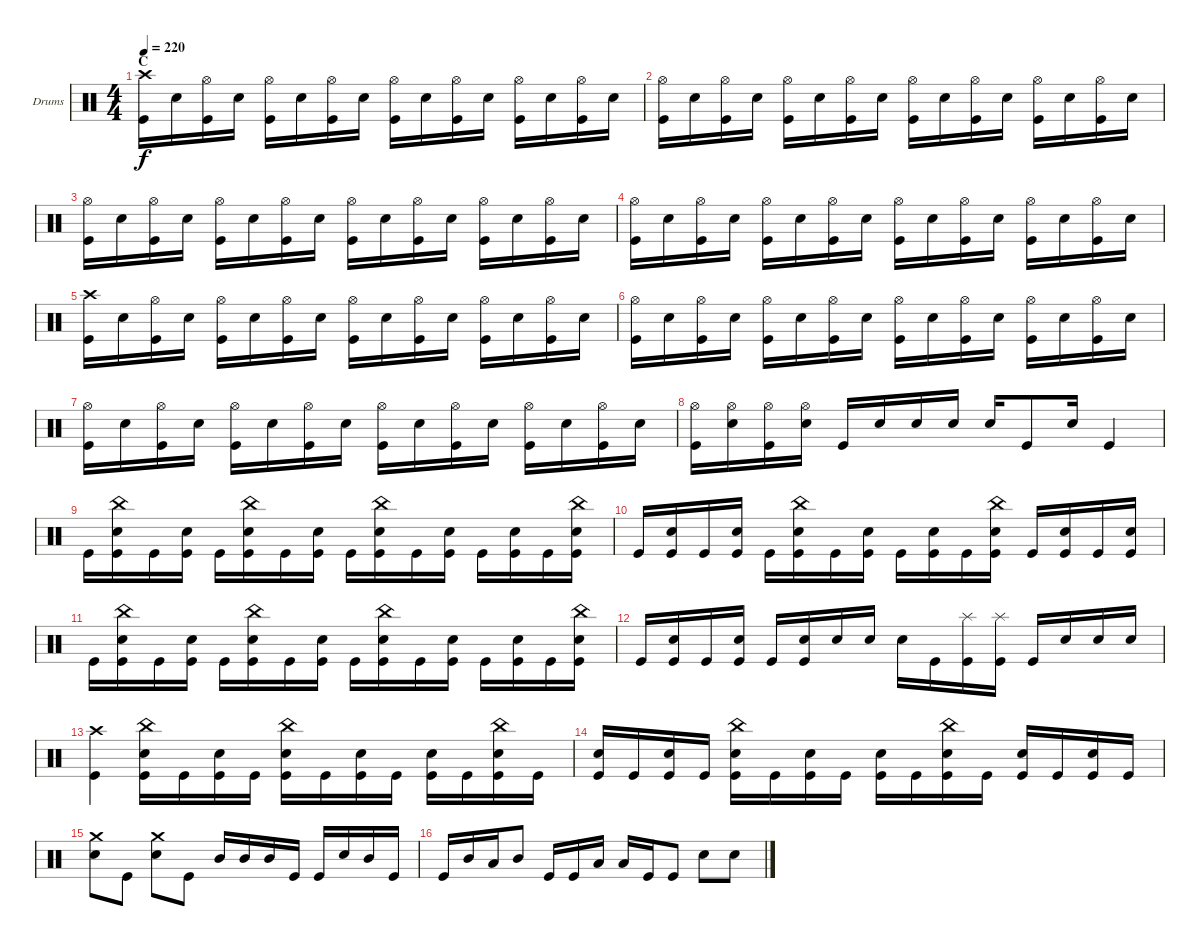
\bracketExtendMode groupsimilarinstruments
\firstSystemTrackNameOrientation horizontal
\otherSystemsTrackNameOrientation horizontal
\track ("Drumkit" "Drums") {instrument percussion}
\staff {score}
\articulation defaults
\ts (4 4)
\section ("" "C")
\tempo 220
\clef neutral
\scale
0.5
\ks c
("Kick (hit)" "Crash high (hit)").16{dy f} "Snare (hit) 2".16 ("Kick (hit)" "Hi-Hat (open)").16 "Snare (hit) 2".16 ("Kick (hit)" "Hi-Hat (open)").16 "Snare (hit) 2".16 ("Kick (hit)" "Hi-Hat (open)").16 "Snare (hit) 2".16 ("Kick (hit)" "Hi-Hat (open)").16 "Snare (hit) 2".16 ("Kick (hit)" "Hi-Hat (open)").16 "Snare (hit) 2".16 ("Kick (hit)" "Hi-Hat (open)").16 "Snare (hit) 2".16 ("Kick (hit)" "Hi-Hat (open)").16 "Snare (hit) 2".16 |
\scale
0.5 ("Kick (hit)" "Hi-Hat (open)").16 "Snare (hit) 2".16 ("Kick (hit)" "Hi-Hat (open)").16 "Snare (hit) 2".16 ("Kick (hit)" "Hi-Hat (open)").16 "Snare (hit) 2".16 ("Kick (hit)" "Hi-Hat (open)").16 "Snare (hit) 2".16 ("Kick (hit)" "Hi-Hat (open)").16 "Snare (hit) 2".16 ("Kick (hit)" "Hi-Hat (open)").16 "Snare (hit) 2".16 ("Kick (hit)" "Hi-Hat (open)").16 "Snare (hit) 2".16 ("Kick (hit)" "Hi-Hat (open)").16 "Snare (hit) 2".16 |
\scale
0.5 ("Kick (hit)" "Hi-Hat (open)").16 "Snare (hit) 2".16 ("Kick (hit)" "Hi-Hat (open)").16 "Snare (hit) 2".16 ("Kick (hit)" "Hi-Hat (open)").16 "Snare (hit) 2".16 ("Kick (hit)" "Hi-Hat (open)").16 "Snare (hit) 2".16 ("Kick (hit)" "Hi-Hat (open)").16 "Snare (hit) 2".16 ("Kick (hit)" "Hi-Hat (open)").16 "Snare (hit) 2".16 ("Kick (hit)" "Hi-Hat (open)").16 "Snare (hit) 2".16 ("Kick (hit)" "Hi-Hat (open)").16 "Snare (hit) 2".16 |
\scale
0.5 ("Kick (hit)" "Hi-Hat (open)").16 "Snare (hit) 2".16 ("Kick (hit)" "Hi-Hat (open)").16 "Snare (hit) 2".16 ("Kick (hit)" "Hi-Hat (open)").16 "Snare (hit) 2".16 ("Kick (hit)" "Hi-Hat (open)").16 "Snare (hit) 2".16 ("Kick (hit)" "Hi-Hat (open)").16 "Snare (hit) 2".16 ("Kick (hit)" "Hi-Hat (open)").16 "Snare (hit) 2".16 ("Kick (hit)" "Hi-Hat (open)").16 "Snare (hit) 2".16 ("Kick (hit)" "Hi-Hat (open)").16 "Snare (hit) 2".16 |
\scale
0.5 ("Kick (hit)" "Crash high (hit)").16 "Snare (hit) 2".16 ("Kick (hit)" "Hi-Hat (open)").16 "Snare (hit) 2".16 ("Kick (hit)" "Hi-Hat (open)").16 "Snare (hit) 2".16 ("Kick (hit)" "Hi-Hat (open)").16 "Snare (hit) 2".16 ("Kick (hit)" "Hi-Hat (open)").16 "Snare (hit) 2".16 ("Kick (hit)" "Hi-Hat (open)").16 "Snare (hit) 2".16 ("Kick (hit)" "Hi-Hat (open)").16 "Snare (hit) 2".16 ("Kick (hit)" "Hi-Hat (open)").16 "Snare (hit) 2".16 |
\scale
0.5 ("Kick (hit)" "Hi-Hat (open)").16 "Snare (hit) 2".16 ("Kick (hit)" "Hi-Hat (open)").16 "Snare (hit) 2".16 ("Kick (hit)" "Hi-Hat (open)").16 "Snare (hit) 2".16 ("Kick (hit)" "Hi-Hat (open)").16 "Snare (hit) 2".16 ("Kick (hit)" "Hi-Hat (open)").16 "Snare (hit) 2".16 ("Kick (hit)" "Hi-Hat (open)").16 "Snare (hit) 2".16 ("Kick (hit)" "Hi-Hat (open)").16 "Snare (hit) 2".16 ("Kick (hit)" "Hi-Hat (open)").16 "Snare (hit) 2".16 |
\scale
0.540305 ("Kick (hit)" "Hi-Hat (open)").16 "Snare (hit) 2".16 ("Kick (hit)" "Hi-Hat (open)").16 "Snare (hit) 2".16 ("Kick (hit)" "Hi-Hat (open)").16 "Snare (hit) 2".16 ("Kick (hit)" "Hi-Hat (open)").16 "Snare (hit) 2".16 ("Kick (hit)" "Hi-Hat (open)").16 "Snare (hit) 2".16 ("Kick (hit)" "Hi-Hat (open)").16 "Snare (hit) 2".16 ("Kick (hit)" "Hi-Hat (open)").16 "Snare (hit) 2".16 ("Kick (hit)" "Hi-Hat (open)").16 "Snare (hit) 2".16 |
\scale
0.459695 ("Hi-Hat (open)" "Kick (hit)").16 ("Hi-Hat (open)" "Snare (hit) 2").16 ("Hi-Hat (open)" "Kick (hit)").16 ("Hi-Hat (open)" "Snare (hit) 2").16 "Kick (hit)".16 "Snare (hit) 2".16 "Snare (hit) 2".16 "Snare (hit) 2".16 "Snare (hit) 2".16 "Kick (hit)".8 "Snare (hit) 2".16 "Kick (hit)".4 |
\scale
0.5 "Kick (hit)".16 ("China (hit)" "Snare (hit) 2" "Kick (hit)").16 "Kick (hit)".16 ("Snare (hit) 2" "Kick (hit)").16 "Kick (hit)".16 ("China (hit)" "Snare (hit) 2" "Kick (hit)").16 "Kick (hit)".16 ("Snare (hit) 2" "Kick (hit)").16 "Kick (hit)".16 ("China (hit)" "Snare (hit) 2" "Kick (hit)").16 "Kick (hit)".16 ("Snare (hit) 2" "Kick (hit)").16 "Kick (hit)".16 ("Snare (hit) 2" "Kick (hit)").16 "Kick (hit)".16 ("China (hit)" "Snare (hit) 2" "Kick (hit)").16 |
\scale
0.5 "Kick (hit)".16 ("Snare (hit) 2" "Kick (hit)").16 "Kick (hit)".16 ("Snare (hit) 2" "Kick (hit)").16 "Kick (hit)".16 ("China (hit)" "Snare (hit) 2" "Kick (hit)").16 "Kick (hit)".16 ("Snare (hit) 2" "Kick (hit)").16 "Kick (hit)".16 ("Snare (hit) 2" "Kick (hit)").16 "Kick (hit)".16 ("China (hit)" "Snare (hit) 2" "Kick (hit)").16 "Kick (hit)".16 ("Snare (hit) 2" "Kick (hit)").16 "Kick (hit)".16 ("Snare (hit) 2" "Kick (hit)").16 |
\scale
0.5 "Kick (hit)".16 ("China (hit)" "Snare (hit) 2" "Kick (hit)").16 "Kick (hit)".16 ("Snare (hit) 2" "Kick (hit)").16 "Kick (hit)".16 ("China (hit)" "Snare (hit) 2" "Kick (hit)").16 "Kick (hit)".16 ("Snare (hit) 2" "Kick (hit)").16 "Kick (hit)".16 ("China (hit)" "Snare (hit) 2" "Kick (hit)").16 "Kick (hit)".16 ("Snare (hit) 2" "Kick (hit)").16 "Kick (hit)".16 ("Snare (hit) 2" "Kick (hit)").16 "Kick (hit)".16 ("China (hit)" "Snare (hit) 2" "Kick (hit)").16 |
\scale
0.5 "Kick (hit)".16 ("Snare (hit) 2" "Kick (hit)").16 "Kick (hit)".16 ("Snare (hit) 2" "Kick (hit)").16 "Kick (hit)".16 ("Snare (hit) 2" "Kick (hit)").16 "Snare (hit) 2".16 "Snare (hit) 2".16 "Snare (hit) 2".16 "Kick (hit)".16 ("Splash (hit)" "Kick (hit)").16 ("Splash (hit)" "Kick (hit)").16 "Kick (hit)".16 "Snare (hit) 2".16 "Snare (hit) 2".16 "Snare (hit) 2".16 |
\scale
0.470085 ("Crash high (hit)" "Kick (hit)").4 ("China (hit)" "Snare (hit) 2" "Kick (hit)").16 "Kick (hit)".16 ("Snare (hit) 2" "Kick (hit)").16 "Kick (hit)".16 ("China (hit)" "Snare (hit) 2" "Kick (hit)").16 "Kick (hit)".16 ("Snare (hit) 2" "Kick (hit)").16 "Kick (hit)".16 ("Snare (hit) 2" "Kick (hit)").16 "Kick (hit)".16 ("China (hit)" "Snare (hit) 2" "Kick (hit)").16 "Kick (hit)".16 |
\scale
0.529915 ("Snare (hit) 2" "Kick (hit)").16 "Kick (hit)".16 ("Snare (hit) 2" "Kick (hit)").16 "Kick (hit)".16 ("China (hit)" "Snare (hit) 2" "Kick (hit)").16 "Kick (hit)".16 ("Snare (hit) 2" "Kick (hit)").16 "Kick (hit)".16 ("Snare (hit) 2" "Kick (hit)").16 "Kick (hit)".16 ("China (hit)" "Snare (hit) 2" "Kick (hit)").16 "Kick (hit)".16 ("Snare (hit) 2" "Kick (hit)").16 "Kick (hit)".16 ("Snare (hit) 2" "Kick (hit)").16 "Kick (hit)".16 |
\scale
0.5 ("Crash medium (hit)" "Snare (hit) 2").8 "Kick (hit)".8 ("Crash medium (hit)" "Snare (hit) 2").8 "Kick (hit)".8 "Mid Tom (hit)".16 "Mid Tom (hit)".16 "Mid Tom (hit)".16 "Kick (hit)".16 "Kick (hit)".16 "Snare (hit) 2".16 "Mid Tom (hit)".16 "Kick (hit)".16 |
\scale
0.5 "Kick (hit)".16 "Mid Tom (hit)".16 "Low Tom (hit)".16 "Mid Tom (hit)".8 "Kick (hit)".16 "Kick (hit)".16 "Low Tom (hit)".16 "Low Tom (hit)".16 "Kick (hit)".16 "Kick (hit)".8 "Snare (hit) 2".8 "Snare (hit) 2".8
